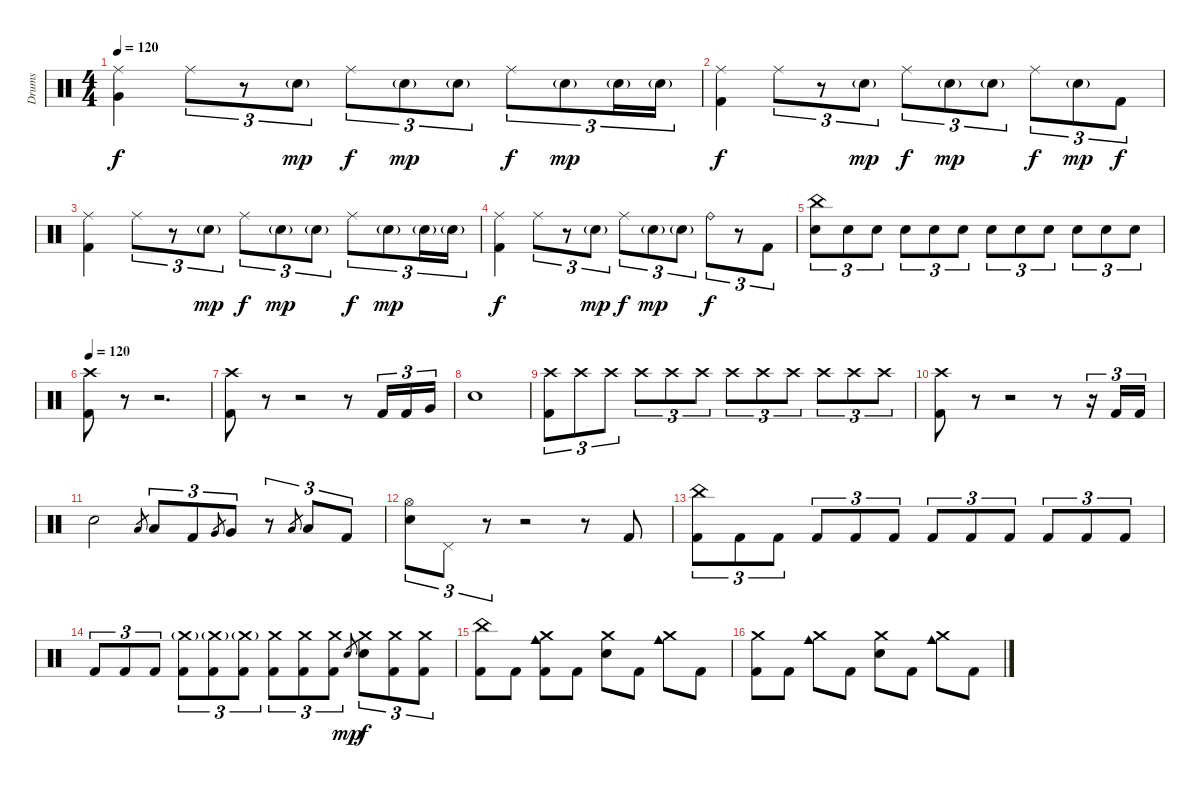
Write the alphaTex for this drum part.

\track ("Drums" "Drums") {instrument percussion}
\staff {score}
\articulation defaults
\ts (4 4)
\tempo 120
\clef neutral
\ks c
("Ride (middle)" "Very Low Tom (hit)").4{dy f} "Ride (middle)".8{tu (3 2)} r.8{tu (3 2)} "Snare (hit) 2"{g}.8{tu (3 2) dy mp} "Ride (middle)".8{tu (3 2) dy f} "Snare (hit) 2"{g}.8{tu (3 2) dy mp} "Snare (hit) 2"{g}.8{tu (3 2)} "Ride (middle)".8{tu (3 2) dy f} "Snare (hit) 2"{g}.8{tu (3 2) dy mp} "Snare (hit) 2"{g}.16{tu (3 2)} "Snare (hit) 2"{g}.16{tu (3 2)} |
("Ride (middle)" "Kick (hit) 2").4{dy f} "Ride (middle)".8{tu (3 2)} r.8{tu (3 2)} "Snare (hit) 2"{g}.8{tu (3 2) dy mp} "Ride (middle)".8{tu (3 2) dy f} "Snare (hit) 2"{g}.8{tu (3 2) dy mp} "Snare (hit) 2"{g}.8{tu (3 2)} "Ride (middle)".8{tu (3 2) dy f} "Snare (hit) 2"{g}.8{tu (3 2) dy mp} "Kick (hit) 2".8{tu (3 2) dy f} |
("Ride (middle)" "Kick (hit) 2").4 "Ride (middle)".8{tu (3 2)} r.8{tu (3 2)} "Snare (hit) 2"{g}.8{tu (3 2) dy mp} "Ride (middle)".8{tu (3 2) dy f} "Snare (hit) 2"{g}.8{tu (3 2) dy mp} "Snare (hit) 2"{g}.8{tu (3 2)} "Ride (middle)".8{tu (3 2) dy f} "Snare (hit) 2"{g}.8{tu (3 2) dy mp} "Snare (hit) 2"{g}.16{tu (3 2)} "Snare (hit) 2"{g}.16{tu (3 2)} |
("Ride (middle)" "Kick (hit) 2").4{dy f} "Ride (middle)".8{tu (3 2)} r.8{tu (3 2)} "Snare (hit) 2"{g}.8{tu (3 2) dy mp} "Ride (middle)".8{tu (3 2) dy f} "Snare (hit) 2"{g}.8{tu (3 2) dy mp} "Snare (hit) 2"{g}.8{tu (3 2)} "Ride (bell)".8{tu (3 2) dy f} r.8{tu (3 2)} "Kick (hit) 2".8{tu (3 2)} |
("China (hit)" "Electric Snare (hit)").8{tu (3 2)} "Electric Snare (hit)".8{tu (3 2)} "Electric Snare (hit)".8{tu (3 2)} "Electric Snare (hit)".8{tu (3 2)} "Electric Snare (hit)".8{tu (3 2)} "Electric Snare (hit)".8{tu (3 2)} "Electric Snare (hit)".8{tu (3 2)} "Electric Snare (hit)".8{tu (3 2)} "Electric Snare (hit)".8{tu (3 2)} "Electric Snare (hit)".8{tu (3 2)} "Electric Snare (hit)".8{tu (3 2)} "Electric Snare (hit)".8{tu (3 2)} |
\tempo 120
("Crash high (hit)" "Kick (hit) 2").8{volume 13} r.8{volume 0} r.2{d} |
("Crash high (hit)" "Kick (hit) 2").8{volume 13} r.8{volume 0} r.2 r.8{volume 13} "Kick (hit) 2".16{tu (3 2)} "Kick (hit) 2".16{tu (3 2)} "Very Low Tom (hit)".16{tu (3 2)} |
"Electric Snare (hit)".1 |
("Crash high (hit)" "Kick (hit) 2").8{tu (3 2)} "Crash high (hit)".8{tu (3 2)} "Crash high (hit)".8{tu (3 2)} "Crash high (hit)".8{tu (3 2)} "Crash high (hit)".8{tu (3 2)} "Crash high (hit)".8{tu (3 2)} "Crash high (hit)".8{tu (3 2)} "Crash high (hit)".8{tu (3 2)} "Crash high (hit)".8{tu (3 2)} "Crash high (hit)".8{tu (3 2)} "Crash high (hit)".8{tu (3 2)} "Crash high (hit)".8{tu (3 2)} |
("Crash high (hit)" "Kick (hit) 2").8 r.8{volume 0} r.2 r.8{volume 13} r.16{tu (3 2)} "Kick (hit) 2".16{tu (3 2)} "Kick (hit) 2".16{tu (3 2)} |
"Electric Snare (hit)".2 "Low Tom (hit)".8{gr} "Low Tom (hit)".8{tu (3 2)} "Kick (hit) 2".8{tu (3 2)} "Very Low Tom (hit)".8{gr} "Very Low Tom (hit)".8{tu (3 2)} r.8{tu (3 2)} "Low Floor Tom (hit)".8{gr} "Low Floor Tom (hit)".8{tu (3 2)} "Kick (hit) 2".8{tu (3 2)} |
("Hi-Hat (open)" "Electric Snare (hit)").8{tu (3 2)} "Pedal Hi-Hat (hit)".8{tu (3 2)} r.8{tu (3 2)} r.2 r.8 "Kick (hit) 2".8 |
("China (hit)" "Kick (hit) 2").8{tu (3 2)} "Kick (hit) 2".8{tu (3 2)} "Kick (hit) 2".8{tu (3 2)} "Kick (hit) 2".8{tu (3 2)} "Kick (hit) 2".8{tu (3 2)} "Kick (hit) 2".8{tu (3 2)} "Kick (hit) 2".8{tu (3 2)} "Kick (hit) 2".8{tu (3 2)} "Kick (hit) 2".8{tu (3 2)} "Kick (hit) 2".8{tu (3 2)} "Kick (hit) 2".8{tu (3 2)} "Kick (hit) 2".8{tu (3 2)} |
"Kick (hit) 2".8{tu (3 2)} "Kick (hit) 2".8{tu (3 2)} "Kick (hit) 2".8{tu (3 2)} ("Crash medium (hit)"{g} "Kick (hit) 2").8{tu (3 2)} ("Crash medium (hit)"{g} "Kick (hit) 2").8{tu (3 2)} ("Crash medium (hit)"{g} "Kick (hit) 2").8{tu (3 2)} ("Crash medium (hit)" "Kick (hit) 2").8{tu (3 2)} ("Crash medium (hit)" "Kick (hit) 2").8{tu (3 2)} ("Crash medium (hit)" "Kick (hit) 2").8{tu (3 2)} "Electric Snare (hit)".8{gr dy mp} ("Crash medium (hit)" "Electric Snare (hit)").8{tu (3 2) dy f} ("Crash medium (hit)" "Kick (hit) 2").8{tu (3 2)} ("Crash medium (hit)" "Kick (hit) 2").8{tu (3 2)} |
("China (hit)" "Kick (hit) 2").8 "Kick (hit) 2".8 ("Crash medium (hit)" "Cowbell medium (hit)" "Kick (hit) 2").8 "Kick (hit) 2".8 ("Crash medium (hit)" "Electric Snare (hit)").8 "Kick (hit) 2".8 ("Crash medium (hit)" "Cowbell medium (hit)").8 "Kick (hit) 2".8 |
("Crash medium (hit)" "Kick (hit) 2").8 "Kick (hit) 2".8 ("Crash medium (hit)" "Cowbell medium (hit)").8 "Kick (hit) 2".8 ("Crash medium (hit)" "Electric Snare (hit)").8 "Kick (hit) 2".8 ("Crash medium (hit)" "Cowbell medium (hit)").8 "Kick (hit) 2".8
